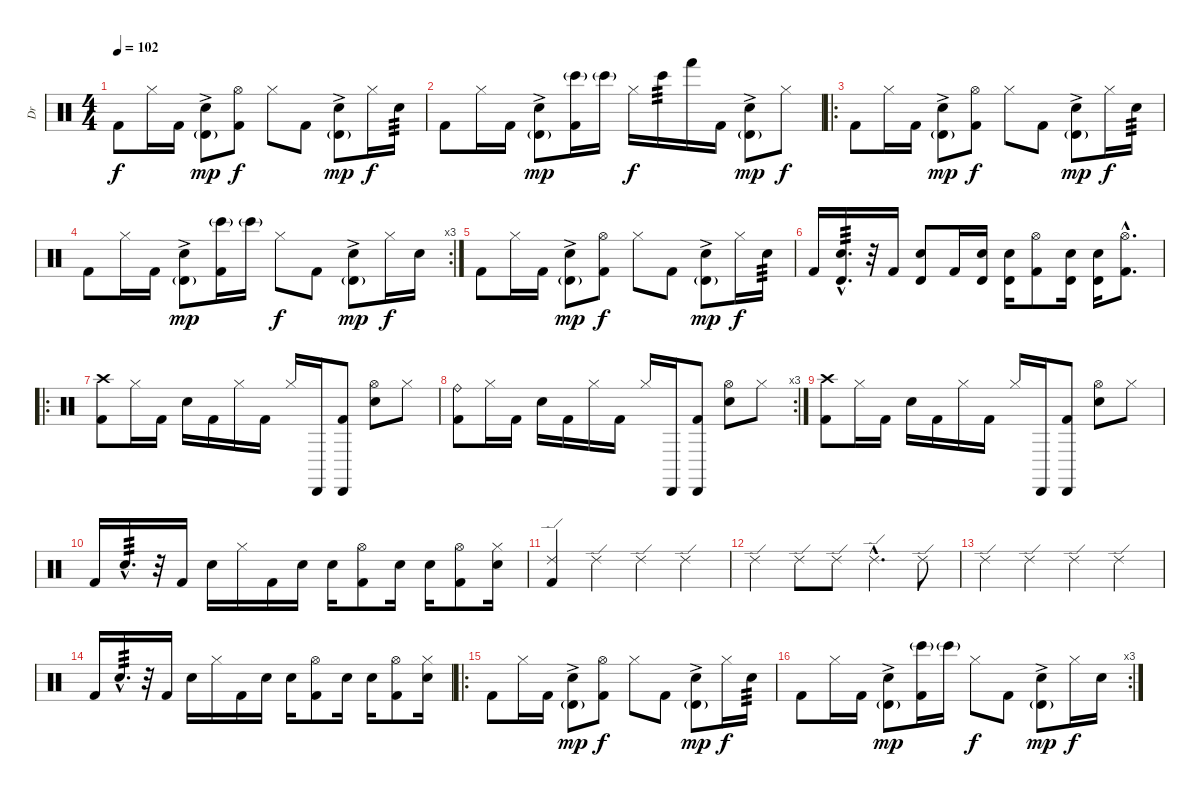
\track ("Dr" "Dr") {instrument percussion}
\staff {score}
\articulation defaults
\ts (4 4)
\tempo 102
\clef neutral
\ks c "Kick (hit) 2".8{dy f} "Hi-Hat (closed)".16 "Kick (hit) 2".16
("Electric Snare (hit)"{ac} "Timbale high (hit)"{g}).8{dy mp} ("Hi-Hat (open)" "Kick (hit) 2").8{dy f} "Hi-Hat (closed)".8 "Kick (hit) 2".8 ("Electric Snare (hit)"{ac} "Timbale high (hit)"{g}).8{dy mp} "Hi-Hat (closed)".16{dy f} "Electric Snare (hit)".16{tp 3} |
"Kick (hit) 2".8 "Hi-Hat (closed)".16 "Kick (hit) 2".16 ("Electric Snare (hit)"{ac} "Timbale high (hit)"{g}).8{dy mp} ("Bongo High (hit)"{g} "Kick (hit) 2").16 "Bongo High (hit)"{g}.16 "Hi-Hat (closed)".16{dy f} "Bongo High (hit)".16{tp 3} "Hand (hit)".16 "Kick (hit) 2".16 ("Electric Snare (hit)"{ac} "Timbale high (hit)"{g}).8{dy mp} "Hi-Hat (closed)".8{dy f} |
\ro "Kick (hit) 2".8 "Hi-Hat (closed)".16 "Kick (hit) 2".16
("Electric Snare (hit)"{ac} "Timbale high (hit)"{g}).8{dy mp} ("Hi-Hat (open)" "Kick (hit) 2").8{dy f} "Hi-Hat (closed)".8 "Kick (hit) 2".8 ("Electric Snare (hit)"{ac} "Timbale high (hit)"{g}).8{dy mp} "Hi-Hat (closed)".16{dy f} "Electric Snare (hit)".16{tp 3} |
\rc 3 "Kick (hit) 2".8 "Hi-Hat (closed)".16 "Kick (hit) 2".16
("Electric Snare (hit)"{ac} "Timbale high (hit)"{g}).8{dy mp} ("Bongo High (hit)"{g} "Kick (hit) 2").16 "Bongo High (hit)"{g}.16 "Hi-Hat (closed)".8{dy f} "Kick (hit) 2".8 ("Electric Snare (hit)"{ac} "Timbale high (hit)"{g}).8{dy mp} "Hi-Hat (closed)".16{dy f} "Electric Snare (hit)".16 |
"Kick (hit) 2".8 "Hi-Hat (closed)".16 "Kick (hit) 2".16 ("Electric Snare (hit)"{ac} "Timbale high (hit)"{g}).8{dy mp} ("Hi-Hat (open)" "Kick (hit) 2").8{dy f} "Hi-Hat (closed)".8 "Kick (hit) 2".8 ("Electric Snare (hit)"{ac} "Timbale high (hit)"{g}).8{dy mp} "Hi-Hat (closed)".16{dy f} "Electric Snare (hit)".16{tp 3} |
"Kick (hit) 2".16 ("Timbale high (hit)"{hac} "Electric Snare (hit)"{hac}).16{d tp 3} r.32 "Kick (hit) 2".16 ("Timbale high (hit)" "Electric Snare (hit)").8 "Kick (hit) 2".16 ("Timbale high (hit)" "Electric Snare (hit)").16 ("Timbale high (hit)" "Electric Snare (hit)").16 ("Hi-Hat (open)" "Kick (hit) 2").8 ("Timbale high (hit)" "Electric Snare (hit)").16 ("Timbale high (hit)" "Electric Snare (hit)").16 ("Hi-Hat (open)"{hac} "Kick (hit) 2"{hac}).8{d} |
\ro
("Crash high (hit)" "Kick (hit) 2").8 "Hi-Hat (closed)".16 "Kick (hit) 2".16 "Electric Snare (hit)".16 "Kick (hit) 2".16 "Hi-Hat (closed)".16 "Kick (hit) 2".16 "Hi-Hat (closed)".16 "Cabasa (hit)".16 ("Cabasa (hit)" "Kick (hit) 2").8 ("Hi-Hat (open)" "Electric Snare (hit)").8 "Hi-Hat (closed)".8 |
\rc 3
("Ride (bell)" "Kick (hit) 2").8 "Hi-Hat (closed)".16 "Kick (hit) 2".16 "Electric Snare (hit)".16 "Kick (hit) 2".16 "Hi-Hat (closed)".16 "Kick (hit) 2".16 "Hi-Hat (closed)".16 "Cabasa (hit)".16 ("Cabasa (hit)" "Kick (hit) 2").8 ("Hi-Hat (open)" "Electric Snare (hit)").8 "Hi-Hat (closed)".8 |
("Crash high (hit)" "Kick (hit) 2").8 "Hi-Hat (closed)".16 "Kick (hit) 2".16 "Electric Snare (hit)".16 "Kick (hit) 2".16 "Hi-Hat (closed)".16 "Kick (hit) 2".16 "Hi-Hat (closed)".16 "Cabasa (hit)".16 ("Cabasa (hit)" "Kick (hit) 2").8 ("Hi-Hat (open)" "Electric Snare (hit)").8 "Hi-Hat (closed)".8 |
"Kick (hit) 2".16 "Electric Snare (hit)"{hac}.16{d tp 3} r.32 "Kick (hit) 2".16 "Electric Snare (hit)".16 "Hi-Hat (closed)".16 "Kick (hit) 2".16 "Electric Snare (hit)".16 "Electric Snare (hit)".16 ("Hi-Hat (open)" "Kick (hit) 2").8 "Electric Snare (hit)".16 "Electric Snare (hit)".16 ("Hi-Hat (open)" "Kick (hit) 2").8 ("Hi-Hat (closed)" "Electric Snare (hit)").16 |
("Ride (edge) 2" "Kick (hit) 2").4 "Ride (edge) 2".4 "Ride (edge) 2".4 "Ride (edge) 2".4 |
"Ride (edge) 2".4 "Ride (edge) 2".8 "Ride (edge) 2".8 "Ride (edge) 2"{hac}.4{d} "Ride (edge) 2".8 |
"Ride (edge) 2".4 "Ride (edge) 2".4 "Ride (edge) 2".4 "Ride (edge) 2".4 |
"Kick (hit) 2".16 "Electric Snare (hit)"{hac}.16{d tp 3} r.32 "Kick (hit) 2".16 "Electric Snare (hit)".16 "Hi-Hat (closed)".16 "Kick (hit) 2".16 "Electric Snare (hit)".16 "Electric Snare (hit)".16 ("Hi-Hat (open)" "Kick (hit) 2").8 "Electric Snare (hit)".16 "Electric Snare (hit)".16 ("Hi-Hat (open)" "Kick (hit) 2").8 ("Hi-Hat (closed)" "Electric Snare (hit)").16 |
\ro "Kick (hit) 2".8 "Hi-Hat (closed)".16 "Kick (hit) 2".16
("Electric Snare (hit)"{ac} "Timbale high (hit)"{g}).8{dy mp} ("Hi-Hat (open)" "Kick (hit) 2").8{dy f} "Hi-Hat (closed)".8 "Kick (hit) 2".8 ("Electric Snare (hit)"{ac} "Timbale high (hit)"{g}).8{dy mp} "Hi-Hat (closed)".16{dy f} "Electric Snare (hit)".16{tp 3} |
\rc 3 "Kick (hit) 2".8 "Hi-Hat (closed)".16 "Kick (hit) 2".16
("Electric Snare (hit)"{ac} "Timbale high (hit)"{g}).8{dy mp} ("Bongo High (hit)"{g} "Kick (hit) 2").16 "Bongo High (hit)"{g}.16 "Hi-Hat (closed)".8{dy f} "Kick (hit) 2".8 ("Electric Snare (hit)"{ac} "Timbale high (hit)"{g}).8{dy mp} "Hi-Hat (closed)".16{dy f} "Electric Snare (hit)".16
